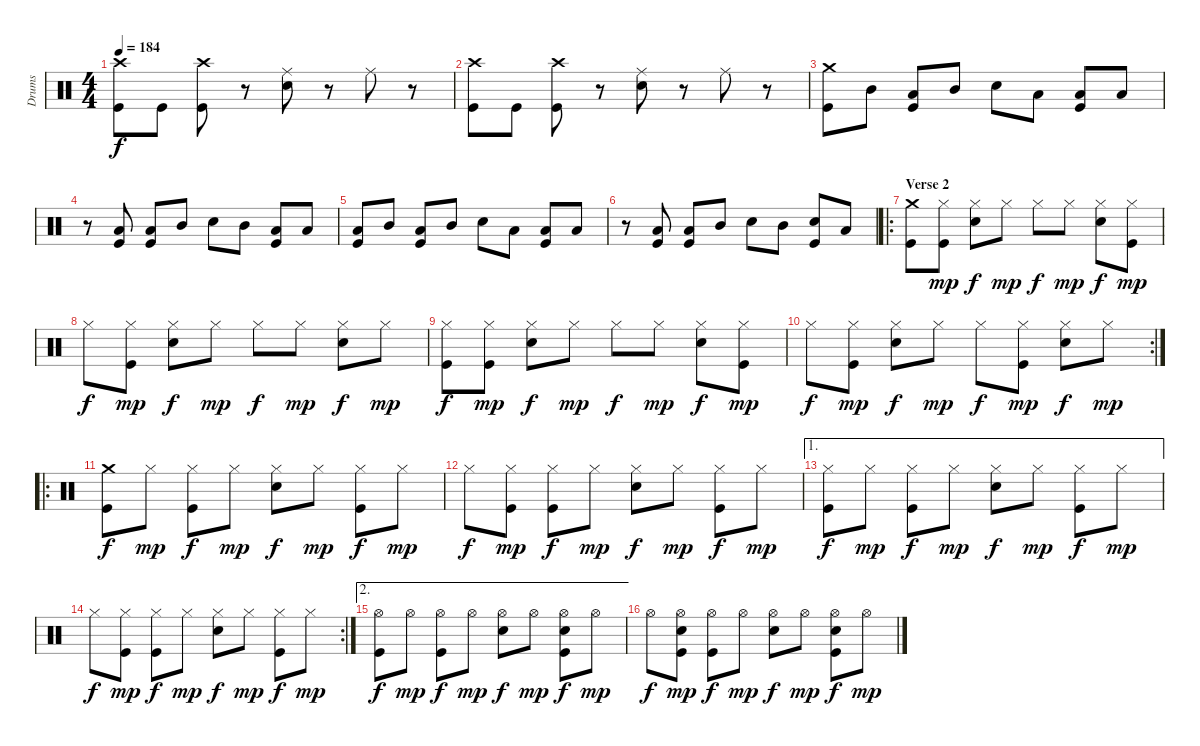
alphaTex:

\track ("Drums" "Drums") {instrument percussion}
\staff {score}
\articulation defaults
\ts (4 4)
\tempo 184
\clef neutral
\ks c
("Crash high (hit)" "Kick (hit)").8{dy f} "Kick (hit)".8 ("Crash high (hit)" "Kick (hit)").8 r.8 ("Ride (middle)" "Snare (hit) 2").8 r.8 "Ride (middle)".8 r.8 |
("Crash high (hit)" "Kick (hit)").8 "Kick (hit)".8 ("Crash high (hit)" "Kick (hit)").8 r.8 ("Ride (middle)" "Snare (hit) 2").8 r.8 "Ride (middle)".8 r.8 |
("Crash medium (hit)" "Kick (hit)").8 "Mid Tom (hit)".8 ("Low Tom (hit)" "Kick (hit)").8 "Mid Tom (hit)".8 "Snare (hit) 2".8 "Low Tom (hit)".8 ("Low Tom (hit)" "Kick (hit)").8 "Low Tom (hit)".8 |
r.8 ("Low Tom (hit)" "Kick (hit)").8 ("Low Tom (hit)" "Kick (hit)").8 "Mid Tom (hit)".8 "Snare (hit) 2".8 "Mid Tom (hit)".8 ("Low Tom (hit)" "Kick (hit)").8 "Low Tom (hit)".8 |
("Low Tom (hit)" "Kick (hit)").8 "Mid Tom (hit)".8 ("Low Tom (hit)" "Kick (hit)").8 "Mid Tom (hit)".8 "Snare (hit) 2".8 "Low Tom (hit)".8 ("Low Tom (hit)" "Kick (hit)").8 "Low Tom (hit)".8 |
r.8 ("Low Tom (hit)" "Kick (hit)").8 ("Low Tom (hit)" "Kick (hit)").8 "Mid Tom (hit)".8 "Snare (hit) 2".8 "Mid Tom (hit)".8 ("Snare (hit) 2" "Kick (hit)").8 "Low Tom (hit)".8 |
\ro
\section ("" "Verse 2")
("Crash medium (hit)" "Kick (hit)").8 ("Hi-Hat (closed)" "Kick (hit)").8{dy mp} ("Hi-Hat (closed)" "Snare (hit) 2").8{dy f} "Hi-Hat (closed)".8{dy mp} "Hi-Hat (closed)".8{dy f} "Hi-Hat (closed)".8{dy mp} ("Hi-Hat (closed)" "Snare (hit) 2").8{dy f} ("Hi-Hat (closed)" "Kick (hit)").8{dy mp} |
"Hi-Hat (closed)".8{dy f} ("Hi-Hat (closed)" "Kick (hit)").8{dy mp} ("Hi-Hat (closed)" "Snare (hit) 2").8{dy f} "Hi-Hat (closed)".8{dy mp} "Hi-Hat (closed)".8{dy f} "Hi-Hat (closed)".8{dy mp} ("Hi-Hat (closed)" "Snare (hit) 2").8{dy f} "Hi-Hat (closed)".8{dy mp} |
("Hi-Hat (closed)" "Kick (hit)").8{dy f} ("Hi-Hat (closed)" "Kick (hit)").8{dy mp} ("Hi-Hat (closed)" "Snare (hit) 2").8{dy f} "Hi-Hat (closed)".8{dy mp} "Hi-Hat (closed)".8{dy f} "Hi-Hat (closed)".8{dy mp} ("Hi-Hat (closed)" "Snare (hit) 2").8{dy f} ("Hi-Hat (closed)" "Kick (hit)").8{dy mp} |
\rc 2 "Hi-Hat (closed)".8{dy f}
("Hi-Hat (closed)" "Kick (hit)").8{dy mp} ("Hi-Hat (closed)" "Snare (hit) 2").8{dy f} "Hi-Hat (closed)".8{dy mp} "Hi-Hat (closed)".8{dy f} ("Hi-Hat (closed)" "Kick (hit)").8{dy mp} ("Hi-Hat (closed)" "Snare (hit) 2").8{dy f} "Hi-Hat (closed)".8{dy mp} |
\ro
("Crash medium (hit)" "Kick (hit)").8{dy f} "Hi-Hat (closed)".8{dy mp} ("Hi-Hat (closed)" "Kick (hit)").8{dy f} "Hi-Hat (closed)".8{dy mp} ("Hi-Hat (closed)" "Snare (hit) 2").8{dy f} "Hi-Hat (closed)".8{dy mp} ("Hi-Hat (closed)" "Kick (hit)").8{dy f} "Hi-Hat (closed)".8{dy mp} |
"Hi-Hat (closed)".8{dy f} ("Hi-Hat (closed)" "Kick (hit)").8{dy mp} ("Hi-Hat (closed)" "Kick (hit)").8{dy f} "Hi-Hat (closed)".8{dy mp} ("Hi-Hat (closed)" "Snare (hit) 2").8{dy f} "Hi-Hat (closed)".8{dy mp} ("Hi-Hat (closed)" "Kick (hit)").8{dy f} "Hi-Hat (closed)".8{dy mp} |
\ae 1
("Hi-Hat (closed)" "Kick (hit)").8{dy f} "Hi-Hat (closed)".8{dy mp} ("Hi-Hat (closed)" "Kick (hit)").8{dy f} "Hi-Hat (closed)".8{dy mp} ("Hi-Hat (closed)" "Snare (hit) 2").8{dy f} "Hi-Hat (closed)".8{dy mp} ("Hi-Hat (closed)" "Kick (hit)").8{dy f} "Hi-Hat (closed)".8{dy mp} |
\rc 2 "Hi-Hat (closed)".8{dy f}
("Hi-Hat (closed)" "Kick (hit)").8{dy mp} ("Hi-Hat (closed)" "Kick (hit)").8{dy f} "Hi-Hat (closed)".8{dy mp} ("Hi-Hat (closed)" "Snare (hit) 2").8{dy f} "Hi-Hat (closed)".8{dy mp} ("Hi-Hat (closed)" "Kick (hit)").8{dy f} "Hi-Hat (closed)".8{dy mp} |
\ae 2
("Hi-Hat (open)" "Kick (hit)").8{dy f} "Hi-Hat (open)".8{dy mp} ("Hi-Hat (open)" "Kick (hit)").8{dy f} "Hi-Hat (open)".8{dy mp} ("Hi-Hat (open)" "Snare (hit) 2").8{dy f} "Hi-Hat (open)".8{dy mp} ("Hi-Hat (open)" "Snare (hit) 2" "Kick (hit)").8{dy f} "Hi-Hat (open)".8{dy mp} |
"Hi-Hat (open)".8{dy f} ("Hi-Hat (open)" "Snare (hit) 2" "Kick (hit)").8{dy mp} ("Hi-Hat (open)" "Kick (hit)").8{dy f} "Hi-Hat (open)".8{dy mp} ("Hi-Hat (open)" "Snare (hit) 2").8{dy f} "Hi-Hat (open)".8{dy mp} ("Hi-Hat (open)" "Snare (hit) 2" "Kick (hit)").8{dy f} "Hi-Hat (open)".8{dy mp}
